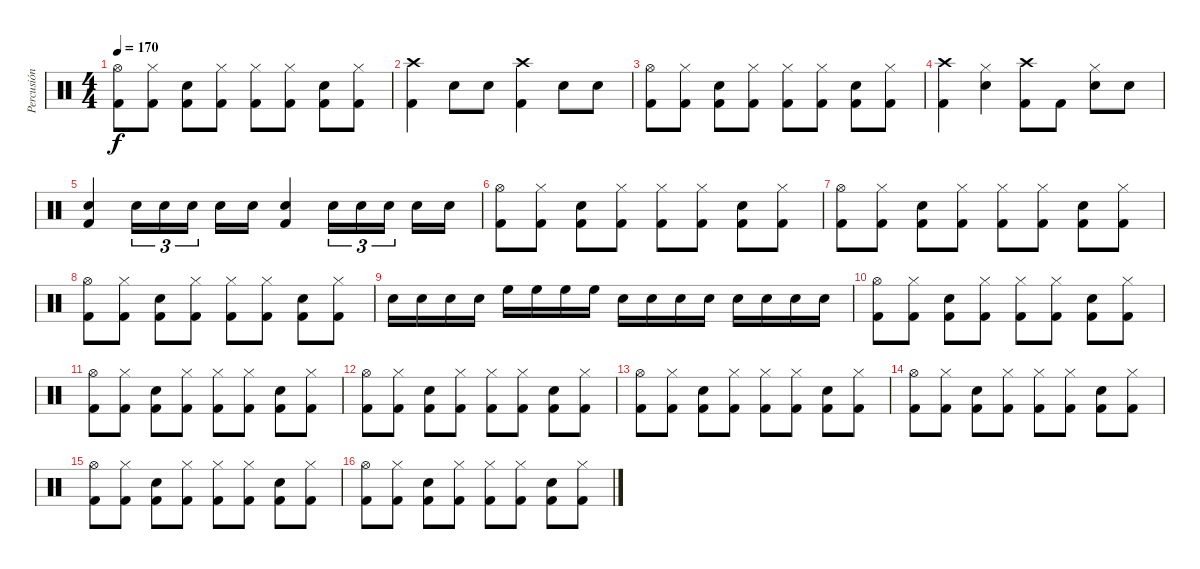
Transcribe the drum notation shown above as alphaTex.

\track ("Percusión" "Percusión") {instrument percussion}
\staff {score}
\articulation defaults
\ts (4 4)
\tempo 170
\clef neutral
\ks c
("Kick (hit) 2" "Hi-Hat (open)").8{dy f} ("Kick (hit) 2" "Hi-Hat (closed)").8 ("Kick (hit) 2" "Snare (hit) 2").8 ("Kick (hit) 2" "Hi-Hat (closed)").8 ("Kick (hit) 2" "Hi-Hat (closed)").8 ("Kick (hit) 2" "Hi-Hat (closed)").8 ("Kick (hit) 2" "Snare (hit) 2").8 ("Kick (hit) 2" "Hi-Hat (closed)").8 |
("Kick (hit) 2" "Crash high (hit)").4 "Snare (hit) 2".8 "Snare (hit) 2".8 ("Kick (hit) 2" "Crash high (hit)").4 "Snare (hit) 2".8 "Snare (hit) 2".8 |
("Kick (hit) 2" "Hi-Hat (open)").8 ("Kick (hit) 2" "Hi-Hat (closed)").8 ("Kick (hit) 2" "Snare (hit) 2").8 ("Kick (hit) 2" "Hi-Hat (closed)").8 ("Kick (hit) 2" "Hi-Hat (closed)").8 ("Kick (hit) 2" "Hi-Hat (closed)").8 ("Kick (hit) 2" "Snare (hit) 2").8 ("Kick (hit) 2" "Hi-Hat (closed)").8 |
("Kick (hit) 2" "Crash high (hit)").4 ("Snare (hit) 2" "Hi-Hat (closed)").4 ("Kick (hit) 2" "Crash high (hit)").8 "Kick (hit) 2".8 ("Snare (hit) 2" "Hi-Hat (closed)").8 "Snare (hit) 2".8 |
("Kick (hit) 2" "Snare (hit) 2").4 "Snare (hit) 2".16{tu (3 2)} "Snare (hit) 2".16{tu (3 2)} "Snare (hit) 2".16{tu (3 2)} "Snare (hit) 2".16 "Snare (hit) 2".16 ("Kick (hit) 2" "Snare (hit) 2").4 "Snare (hit) 2".16{tu (3 2)} "Snare (hit) 2".16{tu (3 2)} "Snare (hit) 2".16{tu (3 2)} "Snare (hit) 2".16 "Snare (hit) 2".16 |
("Kick (hit) 2" "Hi-Hat (open)").8 ("Kick (hit) 2" "Hi-Hat (closed)").8 ("Kick (hit) 2" "Snare (hit) 2").8 ("Kick (hit) 2" "Hi-Hat (closed)").8 ("Kick (hit) 2" "Hi-Hat (closed)").8 ("Kick (hit) 2" "Hi-Hat (closed)").8 ("Kick (hit) 2" "Snare (hit) 2").8 ("Kick (hit) 2" "Hi-Hat (closed)").8 |
("Kick (hit) 2" "Hi-Hat (open)").8 ("Kick (hit) 2" "Hi-Hat (closed)").8 ("Kick (hit) 2" "Snare (hit) 2").8 ("Kick (hit) 2" "Hi-Hat (closed)").8 ("Kick (hit) 2" "Hi-Hat (closed)").8 ("Kick (hit) 2" "Hi-Hat (closed)").8 ("Kick (hit) 2" "Snare (hit) 2").8 ("Kick (hit) 2" "Hi-Hat (closed)").8 |
("Kick (hit) 2" "Hi-Hat (open)").8 ("Kick (hit) 2" "Hi-Hat (closed)").8 ("Kick (hit) 2" "Snare (hit) 2").8 ("Kick (hit) 2" "Hi-Hat (closed)").8 ("Kick (hit) 2" "Hi-Hat (closed)").8 ("Kick (hit) 2" "Hi-Hat (closed)").8 ("Kick (hit) 2" "Snare (hit) 2").8 ("Kick (hit) 2" "Hi-Hat (closed)").8 |
"Snare (hit) 2".16 "Snare (hit) 2".16 "Snare (hit) 2".16 "Snare (hit) 2".16 "High Floor Tom (hit)".16 "High Floor Tom (hit)".16 "High Floor Tom (hit)".16 "High Floor Tom (hit)".16 "Snare (hit) 2".16 "Snare (hit) 2".16 "Snare (hit) 2".16 "Snare (hit) 2".16 "Snare (hit) 2".16 "Snare (hit) 2".16 "Snare (hit) 2".16 "Snare (hit) 2".16 |
("Kick (hit) 2" "Hi-Hat (open)").8 ("Kick (hit) 2" "Hi-Hat (closed)").8 ("Kick (hit) 2" "Snare (hit) 2").8 ("Kick (hit) 2" "Hi-Hat (closed)").8 ("Kick (hit) 2" "Hi-Hat (closed)").8 ("Kick (hit) 2" "Hi-Hat (closed)").8 ("Kick (hit) 2" "Snare (hit) 2").8 ("Kick (hit) 2" "Hi-Hat (closed)").8 |
("Kick (hit) 2" "Hi-Hat (open)").8 ("Kick (hit) 2" "Hi-Hat (closed)").8 ("Kick (hit) 2" "Snare (hit) 2").8 ("Kick (hit) 2" "Hi-Hat (closed)").8 ("Kick (hit) 2" "Hi-Hat (closed)").8 ("Kick (hit) 2" "Hi-Hat (closed)").8 ("Kick (hit) 2" "Snare (hit) 2").8 ("Kick (hit) 2" "Hi-Hat (closed)").8 |
("Kick (hit) 2" "Hi-Hat (open)").8 ("Kick (hit) 2" "Hi-Hat (closed)").8 ("Kick (hit) 2" "Snare (hit) 2").8 ("Kick (hit) 2" "Hi-Hat (closed)").8 ("Kick (hit) 2" "Hi-Hat (closed)").8 ("Kick (hit) 2" "Hi-Hat (closed)").8 ("Kick (hit) 2" "Snare (hit) 2").8 ("Kick (hit) 2" "Hi-Hat (closed)").8 |
("Kick (hit) 2" "Hi-Hat (open)").8 ("Kick (hit) 2" "Hi-Hat (closed)").8 ("Kick (hit) 2" "Snare (hit) 2").8 ("Kick (hit) 2" "Hi-Hat (closed)").8 ("Kick (hit) 2" "Hi-Hat (closed)").8 ("Kick (hit) 2" "Hi-Hat (closed)").8 ("Kick (hit) 2" "Snare (hit) 2").8 ("Kick (hit) 2" "Hi-Hat (closed)").8 |
("Kick (hit) 2" "Hi-Hat (open)").8 ("Kick (hit) 2" "Hi-Hat (closed)").8 ("Kick (hit) 2" "Snare (hit) 2").8 ("Kick (hit) 2" "Hi-Hat (closed)").8 ("Kick (hit) 2" "Hi-Hat (closed)").8 ("Kick (hit) 2" "Hi-Hat (closed)").8 ("Kick (hit) 2" "Snare (hit) 2").8 ("Kick (hit) 2" "Hi-Hat (closed)").8 |
("Kick (hit) 2" "Hi-Hat (open)").8 ("Kick (hit) 2" "Hi-Hat (closed)").8 ("Kick (hit) 2" "Snare (hit) 2").8 ("Kick (hit) 2" "Hi-Hat (closed)").8 ("Kick (hit) 2" "Hi-Hat (closed)").8 ("Kick (hit) 2" "Hi-Hat (closed)").8 ("Kick (hit) 2" "Snare (hit) 2").8 ("Kick (hit) 2" "Hi-Hat (closed)").8 |
("Kick (hit) 2" "Hi-Hat (open)").8 ("Kick (hit) 2" "Hi-Hat (closed)").8 ("Kick (hit) 2" "Snare (hit) 2").8 ("Kick (hit) 2" "Hi-Hat (closed)").8 ("Kick (hit) 2" "Hi-Hat (closed)").8 ("Kick (hit) 2" "Hi-Hat (closed)").8 ("Kick (hit) 2" "Snare (hit) 2").8 ("Kick (hit) 2" "Hi-Hat (closed)").8
